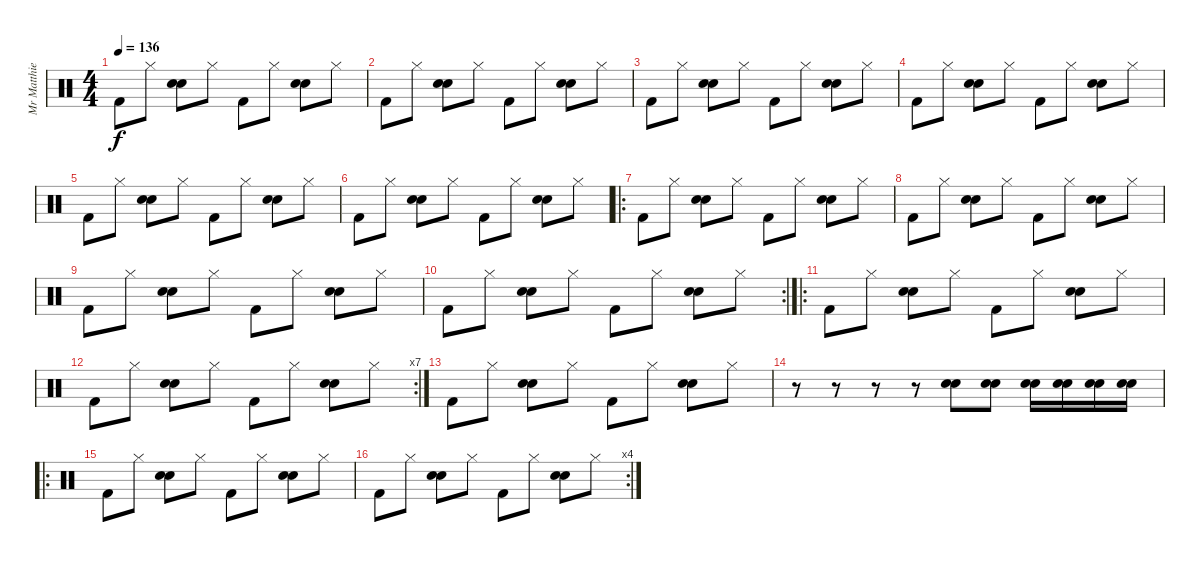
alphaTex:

\track ("Mr Matthieu (Batterie)" "Mr Matthie") {instrument percussion}
\staff {score}
\articulation defaults
\ts (4 4)
\tempo 136
\clef neutral
\ks c "Kick (hit) 2".8{dy f} "Hi-Hat (closed)".8
("Electric Snare (hit)" "Snare (hit) 2").8 "Hi-Hat (closed)".8 "Kick (hit) 2".8 "Hi-Hat (closed)".8 ("Electric Snare (hit)" "Snare (hit) 2").8 "Hi-Hat (closed)".8 |
"Kick (hit) 2".8 "Hi-Hat (closed)".8 ("Electric Snare (hit)" "Snare (hit) 2").8 "Hi-Hat (closed)".8 "Kick (hit) 2".8 "Hi-Hat (closed)".8 ("Electric Snare (hit)" "Snare (hit) 2").8 "Hi-Hat (closed)".8 |
"Kick (hit) 2".8 "Hi-Hat (closed)".8 ("Electric Snare (hit)" "Snare (hit) 2").8 "Hi-Hat (closed)".8 "Kick (hit) 2".8 "Hi-Hat (closed)".8 ("Electric Snare (hit)" "Snare (hit) 2").8 "Hi-Hat (closed)".8 |
"Kick (hit) 2".8 "Hi-Hat (closed)".8 ("Electric Snare (hit)" "Snare (hit) 2").8 "Hi-Hat (closed)".8 "Kick (hit) 2".8 "Hi-Hat (closed)".8 ("Electric Snare (hit)" "Snare (hit) 2").8 "Hi-Hat (closed)".8 |
"Kick (hit) 2".8 "Hi-Hat (closed)".8 ("Electric Snare (hit)" "Snare (hit) 2").8 "Hi-Hat (closed)".8 "Kick (hit) 2".8 "Hi-Hat (closed)".8 ("Electric Snare (hit)" "Snare (hit) 2").8 "Hi-Hat (closed)".8 |
"Kick (hit) 2".8 "Hi-Hat (closed)".8 ("Electric Snare (hit)" "Snare (hit) 2").8 "Hi-Hat (closed)".8 "Kick (hit) 2".8 "Hi-Hat (closed)".8 ("Electric Snare (hit)" "Snare (hit) 2").8 "Hi-Hat (closed)".8 |
\ro "Kick (hit) 2".8 "Hi-Hat (closed)".8
("Electric Snare (hit)" "Snare (hit) 2").8 "Hi-Hat (closed)".8 "Kick (hit) 2".8 "Hi-Hat (closed)".8 ("Electric Snare (hit)" "Snare (hit) 2").8 "Hi-Hat (closed)".8 |
"Kick (hit) 2".8 "Hi-Hat (closed)".8 ("Electric Snare (hit)" "Snare (hit) 2").8 "Hi-Hat (closed)".8 "Kick (hit) 2".8 "Hi-Hat (closed)".8 ("Electric Snare (hit)" "Snare (hit) 2").8 "Hi-Hat (closed)".8 |
"Kick (hit) 2".8 "Hi-Hat (closed)".8 ("Electric Snare (hit)" "Snare (hit) 2").8 "Hi-Hat (closed)".8 "Kick (hit) 2".8 "Hi-Hat (closed)".8 ("Electric Snare (hit)" "Snare (hit) 2").8 "Hi-Hat (closed)".8 |
\rc 2 "Kick (hit) 2".8 "Hi-Hat (closed)".8
("Electric Snare (hit)" "Snare (hit) 2").8 "Hi-Hat (closed)".8 "Kick (hit) 2".8 "Hi-Hat (closed)".8 ("Electric Snare (hit)" "Snare (hit) 2").8 "Hi-Hat (closed)".8 |
\ro "Kick (hit) 2".8 "Hi-Hat (closed)".8
("Electric Snare (hit)" "Snare (hit) 2").8 "Hi-Hat (closed)".8 "Kick (hit) 2".8 "Hi-Hat (closed)".8 ("Electric Snare (hit)" "Snare (hit) 2").8 "Hi-Hat (closed)".8 |
\rc 7 "Kick (hit) 2".8 "Hi-Hat (closed)".8
("Electric Snare (hit)" "Snare (hit) 2").8 "Hi-Hat (closed)".8 "Kick (hit) 2".8 "Hi-Hat (closed)".8 ("Electric Snare (hit)" "Snare (hit) 2").8 "Hi-Hat (closed)".8 |
"Kick (hit) 2".8 "Hi-Hat (closed)".8 ("Electric Snare (hit)" "Snare (hit) 2").8 "Hi-Hat (closed)".8 "Kick (hit) 2".8 "Hi-Hat (closed)".8 ("Electric Snare (hit)" "Snare (hit) 2").8 "Hi-Hat (closed)".8 |
r.8 r.8 r.8 r.8 ("Electric Snare (hit)" "Snare (hit) 2").8 ("Electric Snare (hit)" "Snare (hit) 2").8 ("Electric Snare (hit)" "Snare (hit) 2").16 ("Electric Snare (hit)" "Snare (hit) 2").16 ("Electric Snare (hit)" "Snare (hit) 2").16 ("Electric Snare (hit)" "Snare (hit) 2").16 |
\ro "Kick (hit) 2".8 "Hi-Hat (closed)".8
("Electric Snare (hit)" "Snare (hit) 2").8 "Hi-Hat (closed)".8 "Kick (hit) 2".8 "Hi-Hat (closed)".8 ("Electric Snare (hit)" "Snare (hit) 2").8 "Hi-Hat (closed)".8 |
\rc 4 "Kick (hit) 2".8 "Hi-Hat (closed)".8
("Electric Snare (hit)" "Snare (hit) 2").8 "Hi-Hat (closed)".8 "Kick (hit) 2".8 "Hi-Hat (closed)".8 ("Electric Snare (hit)" "Snare (hit) 2").8 "Hi-Hat (closed)".8
